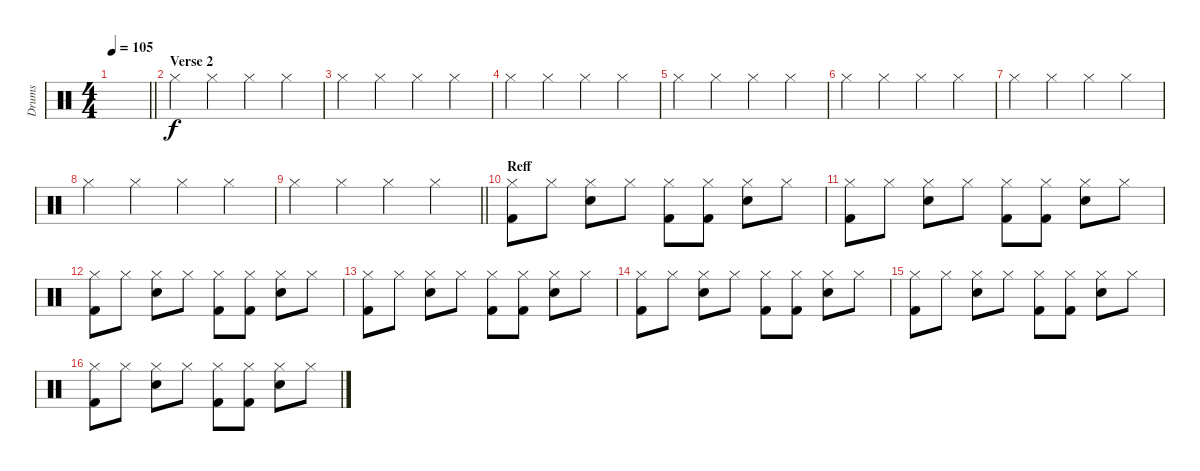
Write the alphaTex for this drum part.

\track ("Drums" "Drums") {instrument percussion}
\staff {score}
\articulation defaults
\ts (4 4)
\tempo 105
\clef neutral
\barLineRight lightlight
\ks c
|
\section ("" "Verse 2")
"Hi-Hat (closed)".4 "Hi-Hat (closed)".4 "Hi-Hat (closed)".4 "Hi-Hat (closed)".4 |
"Hi-Hat (closed)".4 "Hi-Hat (closed)".4 "Hi-Hat (closed)".4 "Hi-Hat (closed)".4 |
"Hi-Hat (closed)".4 "Hi-Hat (closed)".4 "Hi-Hat (closed)".4 "Hi-Hat (closed)".4 |
"Hi-Hat (closed)".4 "Hi-Hat (closed)".4 "Hi-Hat (closed)".4 "Hi-Hat (closed)".4 |
"Hi-Hat (closed)".4 "Hi-Hat (closed)".4 "Hi-Hat (closed)".4 "Hi-Hat (closed)".4 |
"Hi-Hat (closed)".4 "Hi-Hat (closed)".4 "Hi-Hat (closed)".4 "Hi-Hat (closed)".4 |
"Hi-Hat (closed)".4 "Hi-Hat (closed)".4 "Hi-Hat (closed)".4 "Hi-Hat (closed)".4 |
\barLineRight lightlight "Hi-Hat (closed)".4 "Hi-Hat (closed)".4 "Hi-Hat (closed)".4 "Hi-Hat (closed)".4
|
\section ("" "Reff")
("Hi-Hat (closed)" "Kick (hit) 2").8 "Hi-Hat (closed)".8 ("Hi-Hat (closed)" "Electric Snare (hit)").8 "Hi-Hat (closed)".8 ("Hi-Hat (closed)" "Kick (hit) 2").8 ("Hi-Hat (closed)" "Kick (hit) 2").8 ("Hi-Hat (closed)" "Electric Snare (hit)").8 "Hi-Hat (closed)".8 |
("Hi-Hat (closed)" "Kick (hit) 2").8 "Hi-Hat (closed)".8 ("Hi-Hat (closed)" "Electric Snare (hit)").8 "Hi-Hat (closed)".8 ("Hi-Hat (closed)" "Kick (hit) 2").8 ("Hi-Hat (closed)" "Kick (hit) 2").8 ("Hi-Hat (closed)" "Electric Snare (hit)").8 "Hi-Hat (closed)".8 |
("Hi-Hat (closed)" "Kick (hit) 2").8 "Hi-Hat (closed)".8 ("Hi-Hat (closed)" "Electric Snare (hit)").8 "Hi-Hat (closed)".8 ("Hi-Hat (closed)" "Kick (hit) 2").8 ("Hi-Hat (closed)" "Kick (hit) 2").8 ("Hi-Hat (closed)" "Electric Snare (hit)").8 "Hi-Hat (closed)".8 |
("Hi-Hat (closed)" "Kick (hit) 2").8 "Hi-Hat (closed)".8 ("Hi-Hat (closed)" "Electric Snare (hit)").8 "Hi-Hat (closed)".8 ("Hi-Hat (closed)" "Kick (hit) 2").8 ("Hi-Hat (closed)" "Kick (hit) 2").8 ("Hi-Hat (closed)" "Electric Snare (hit)").8 "Hi-Hat (closed)".8 |
("Hi-Hat (closed)" "Kick (hit) 2").8 "Hi-Hat (closed)".8 ("Hi-Hat (closed)" "Electric Snare (hit)").8 "Hi-Hat (closed)".8 ("Hi-Hat (closed)" "Kick (hit) 2").8 ("Hi-Hat (closed)" "Kick (hit) 2").8 ("Hi-Hat (closed)" "Electric Snare (hit)").8 "Hi-Hat (closed)".8 |
("Hi-Hat (closed)" "Kick (hit) 2").8 "Hi-Hat (closed)".8 ("Hi-Hat (closed)" "Electric Snare (hit)").8 "Hi-Hat (closed)".8 ("Hi-Hat (closed)" "Kick (hit) 2").8 ("Hi-Hat (closed)" "Kick (hit) 2").8 ("Hi-Hat (closed)" "Electric Snare (hit)").8 "Hi-Hat (closed)".8 |
("Hi-Hat (closed)" "Kick (hit) 2").8 "Hi-Hat (closed)".8 ("Hi-Hat (closed)" "Electric Snare (hit)").8 "Hi-Hat (closed)".8 ("Hi-Hat (closed)" "Kick (hit) 2").8 ("Hi-Hat (closed)" "Kick (hit) 2").8 ("Hi-Hat (closed)" "Electric Snare (hit)").8 "Hi-Hat (closed)".8
